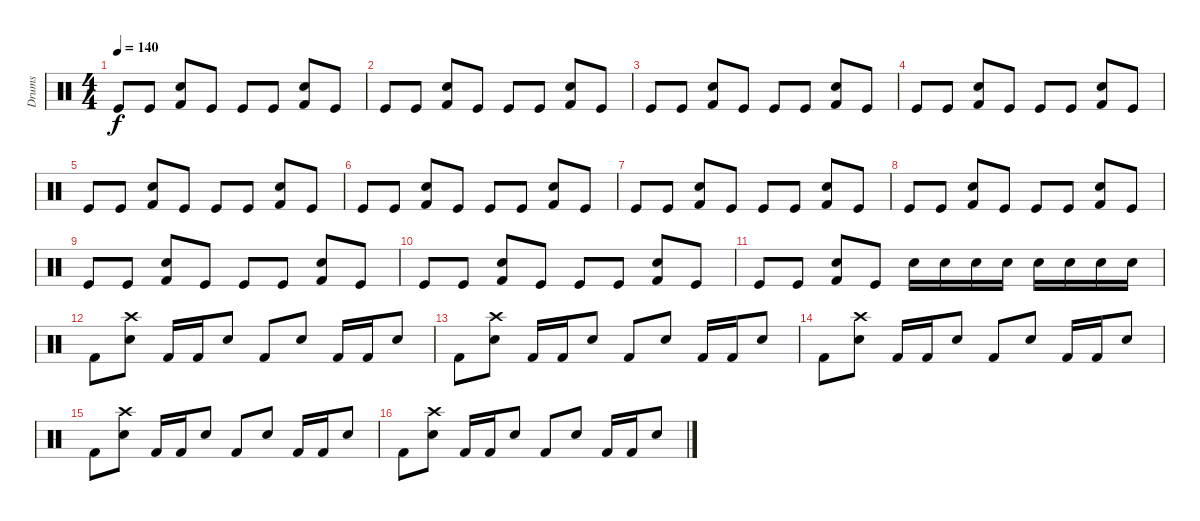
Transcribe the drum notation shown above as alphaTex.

\track ("Drums" "Drums") {instrument percussion}
\staff {score}
\articulation defaults
\ts (4 4)
\tempo 140
\clef neutral
\ks c "Kick (hit)".8{dy f} "Kick (hit)".8
("Kick (hit) 2" "Electric Snare (hit)").8 "Kick (hit)".8 "Kick (hit)".8 "Kick (hit)".8 ("Kick (hit) 2" "Electric Snare (hit)").8 "Kick (hit)".8 |
"Kick (hit)".8 "Kick (hit)".8 ("Kick (hit) 2" "Electric Snare (hit)").8 "Kick (hit)".8 "Kick (hit)".8 "Kick (hit)".8 ("Kick (hit) 2" "Electric Snare (hit)").8 "Kick (hit)".8 |
"Kick (hit)".8 "Kick (hit)".8 ("Kick (hit) 2" "Electric Snare (hit)").8 "Kick (hit)".8 "Kick (hit)".8 "Kick (hit)".8 ("Kick (hit) 2" "Electric Snare (hit)").8 "Kick (hit)".8 |
"Kick (hit)".8 "Kick (hit)".8 ("Kick (hit) 2" "Electric Snare (hit)").8 "Kick (hit)".8 "Kick (hit)".8 "Kick (hit)".8 ("Kick (hit) 2" "Electric Snare (hit)").8 "Kick (hit)".8 |
"Kick (hit)".8 "Kick (hit)".8 ("Kick (hit) 2" "Electric Snare (hit)").8 "Kick (hit)".8 "Kick (hit)".8 "Kick (hit)".8 ("Kick (hit) 2" "Electric Snare (hit)").8 "Kick (hit)".8 |
"Kick (hit)".8 "Kick (hit)".8 ("Kick (hit) 2" "Electric Snare (hit)").8 "Kick (hit)".8 "Kick (hit)".8 "Kick (hit)".8 ("Kick (hit) 2" "Electric Snare (hit)").8 "Kick (hit)".8 |
"Kick (hit)".8 "Kick (hit)".8 ("Kick (hit) 2" "Electric Snare (hit)").8 "Kick (hit)".8 "Kick (hit)".8 "Kick (hit)".8 ("Kick (hit) 2" "Electric Snare (hit)").8 "Kick (hit)".8 |
"Kick (hit)".8 "Kick (hit)".8 ("Kick (hit) 2" "Electric Snare (hit)").8 "Kick (hit)".8 "Kick (hit)".8 "Kick (hit)".8 ("Kick (hit) 2" "Electric Snare (hit)").8 "Kick (hit)".8 |
"Kick (hit)".8 "Kick (hit)".8 ("Kick (hit) 2" "Electric Snare (hit)").8 "Kick (hit)".8 "Kick (hit)".8 "Kick (hit)".8 ("Kick (hit) 2" "Electric Snare (hit)").8 "Kick (hit)".8 |
"Kick (hit)".8 "Kick (hit)".8 ("Kick (hit) 2" "Electric Snare (hit)").8 "Kick (hit)".8 "Kick (hit)".8 "Kick (hit)".8 ("Kick (hit) 2" "Electric Snare (hit)").8 "Kick (hit)".8 |
"Kick (hit)".8 "Kick (hit)".8 ("Kick (hit) 2" "Electric Snare (hit)").8 "Kick (hit)".8 "Snare (hit) 2".16 "Snare (hit) 2".16 "Snare (hit) 2".16 "Snare (hit) 2".16 "Snare (hit) 2".16 "Snare (hit) 2".16 "Snare (hit) 2".16 "Snare (hit) 2".16 |
"Kick (hit) 2".8 ("Snare (hit) 2" "Crash high (hit)").8 "Kick (hit) 2".16 "Kick (hit) 2".16 "Snare (hit) 2".8 "Kick (hit) 2".8 "Snare (hit) 2".8 "Kick (hit) 2".16 "Kick (hit) 2".16 "Snare (hit) 2".8 |
"Kick (hit) 2".8 ("Snare (hit) 2" "Crash high (hit)").8 "Kick (hit) 2".16 "Kick (hit) 2".16 "Snare (hit) 2".8 "Kick (hit) 2".8 "Snare (hit) 2".8 "Kick (hit) 2".16 "Kick (hit) 2".16 "Snare (hit) 2".8 |
"Kick (hit) 2".8 ("Snare (hit) 2" "Crash high (hit)").8 "Kick (hit) 2".16 "Kick (hit) 2".16 "Snare (hit) 2".8 "Kick (hit) 2".8 "Snare (hit) 2".8 "Kick (hit) 2".16 "Kick (hit) 2".16 "Snare (hit) 2".8 |
"Kick (hit) 2".8 ("Snare (hit) 2" "Crash high (hit)").8 "Kick (hit) 2".16 "Kick (hit) 2".16 "Snare (hit) 2".8 "Kick (hit) 2".8 "Snare (hit) 2".8 "Kick (hit) 2".16 "Kick (hit) 2".16 "Snare (hit) 2".8 |
"Kick (hit) 2".8 ("Snare (hit) 2" "Crash high (hit)").8 "Kick (hit) 2".16 "Kick (hit) 2".16 "Snare (hit) 2".8 "Kick (hit) 2".8 "Snare (hit) 2".8 "Kick (hit) 2".16 "Kick (hit) 2".16 "Snare (hit) 2".8
